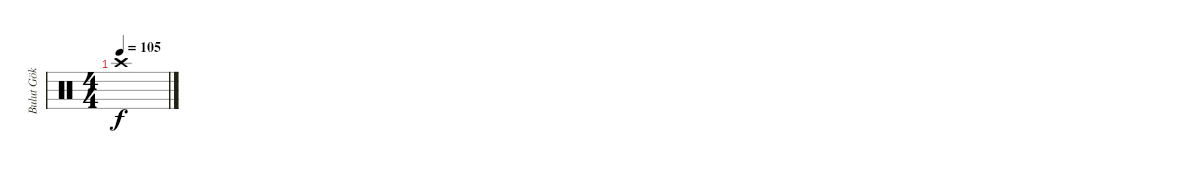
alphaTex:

\track ("Bulut Gök" "Bulut Gök") {instrument percussion}
\staff {score}
\articulation defaults
\ts (4 4)
\tempo 105
\clef neutral
\ks c "Crash high (hit)".1{dy f}
